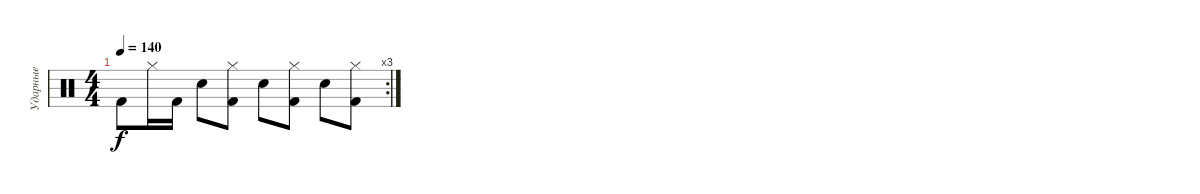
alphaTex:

\track ("Ударные" "Ударные") {instrument percussion}
\staff {score}
\articulation defaults
\rc 3
\ts (4 4)
\tempo 140
\clef neutral
\ks c "Kick (hit) 2".8{dy f} "Hi-Hat (closed)".16 "Kick (hit) 2".16 "Snare (hit) 2".8
("Hi-Hat (closed)" "Kick (hit) 2").8 "Snare (hit) 2".8 ("Hi-Hat (closed)" "Kick (hit) 2").8 "Snare (hit) 2".8 ("Hi-Hat (closed)" "Kick (hit) 2").8
